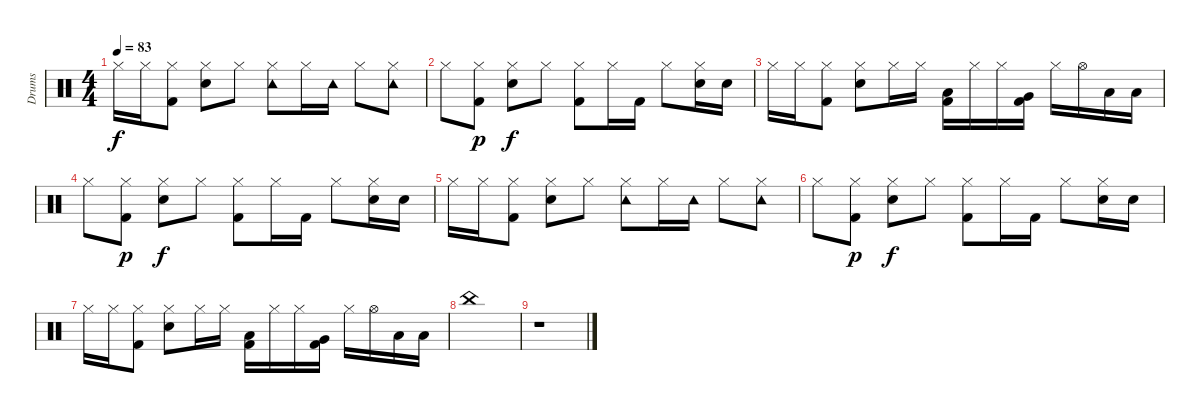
\track ("Drums" "Drums") {instrument percussion}
\staff {score}
\articulation defaults
\ts (4 4)
\tempo 83
\clef neutral
\ks c "Hi-Hat (closed)".16{dy f} "Hi-Hat (closed)".16
("Kick (hit) 2" "Hi-Hat (closed)").8 ("Snare (hit) 2" "Hi-Hat (closed)").8 "Hi-Hat (closed)".8 ("Tambourine (hit)" "Hi-Hat (closed)").8 "Hi-Hat (closed)".16 "Tambourine (hit)".16 "Hi-Hat (closed)".8 ("Tambourine (hit)" "Hi-Hat (closed)").8 |
"Hi-Hat (closed)".8 ("Hi-Hat (closed)" "Kick (hit) 2").8{dy p} ("Snare (hit) 2" "Hi-Hat (closed)").8{dy f} "Hi-Hat (closed)".8 ("Kick (hit) 2" "Hi-Hat (closed)").8 "Hi-Hat (closed)".16 "Kick (hit) 2".16 "Hi-Hat (closed)".8 ("Hand Clap (hit)" "Hi-Hat (closed)").16 "Hand Clap (hit)".16 |
"Hi-Hat (closed)".16 "Hi-Hat (closed)".16 ("Kick (hit) 2" "Hi-Hat (closed)").8 ("Snare (hit) 2" "Hi-Hat (closed)").8 "Hi-Hat (closed)".16 "Hi-Hat (closed)".16 ("Low Tom (hit)" "Kick (hit) 2").16 "Hi-Hat (closed)".16 "Hi-Hat (closed)".16 ("Very Low Tom (hit)" "Kick (hit) 2").16 "Hi-Hat (closed)".16 "Hi-Hat (open)".16 "Low Floor Tom (hit)".16 "Low Floor Tom (hit)".16 |
"Hi-Hat (closed)".8 ("Hi-Hat (closed)" "Kick (hit) 2").8{dy p} ("Snare (hit) 2" "Hi-Hat (closed)").8{dy f} "Hi-Hat (closed)".8 ("Kick (hit) 2" "Hi-Hat (closed)").8 "Hi-Hat (closed)".16 "Kick (hit) 2".16 "Hi-Hat (closed)".8 ("Hand Clap (hit)" "Hi-Hat (closed)").16 "Hand Clap (hit)".16 |
"Hi-Hat (closed)".16 "Hi-Hat (closed)".16 ("Kick (hit) 2" "Hi-Hat (closed)").8 ("Snare (hit) 2" "Hi-Hat (closed)").8 "Hi-Hat (closed)".8 ("Tambourine (hit)" "Hi-Hat (closed)").8 "Hi-Hat (closed)".16 "Tambourine (hit)".16 "Hi-Hat (closed)".8 ("Tambourine (hit)" "Hi-Hat (closed)").8 |
"Hi-Hat (closed)".8 ("Hi-Hat (closed)" "Kick (hit) 2").8{dy p} ("Snare (hit) 2" "Hi-Hat (closed)").8{dy f} "Hi-Hat (closed)".8 ("Kick (hit) 2" "Hi-Hat (closed)").8 "Hi-Hat (closed)".16 "Kick (hit) 2".16 "Hi-Hat (closed)".8 ("Hand Clap (hit)" "Hi-Hat (closed)").16 "Hand Clap (hit)".16 |
"Hi-Hat (closed)".16 "Hi-Hat (closed)".16 ("Kick (hit) 2" "Hi-Hat (closed)").8 ("Snare (hit) 2" "Hi-Hat (closed)").8 "Hi-Hat (closed)".16 "Hi-Hat (closed)".16 ("Low Tom (hit)" "Kick (hit) 2").16 "Hi-Hat (closed)".16 "Hi-Hat (closed)".16 ("Very Low Tom (hit)" "Kick (hit) 2").16 "Hi-Hat (closed)".16 "Hi-Hat (open)".16 "Low Floor Tom (hit)".16 "Low Floor Tom (hit)".16 |
"China (hit)".1 |
r.1
